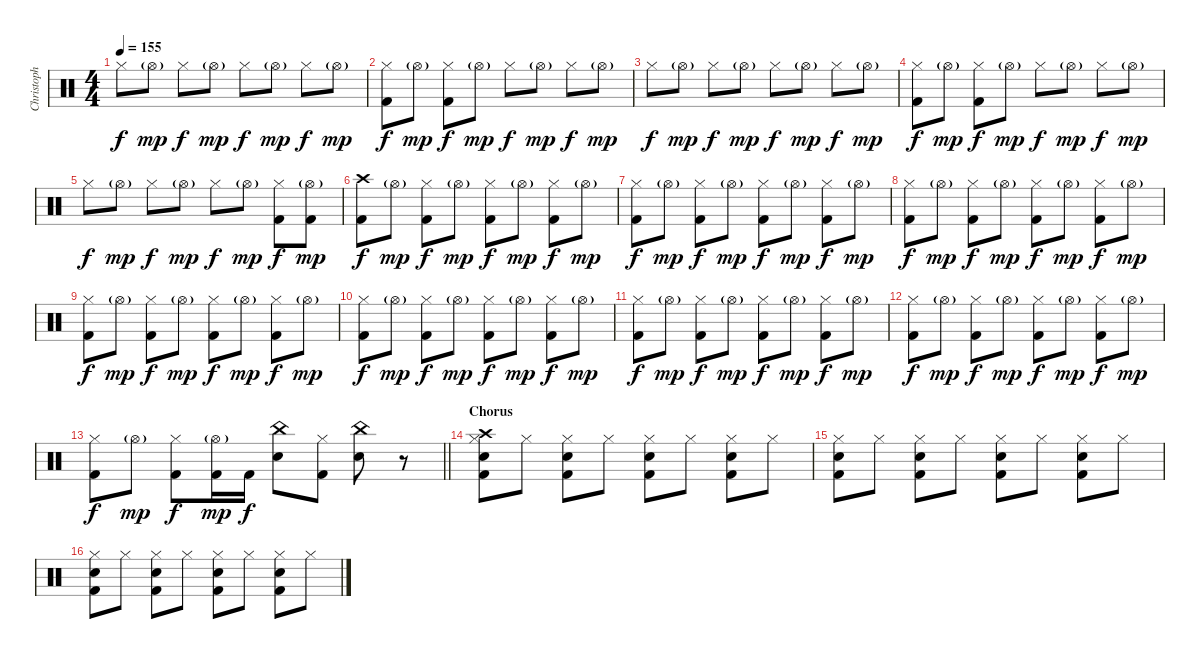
\track ("Christoph \"Doom\" Schneider" "Christoph ") {instrument percussion}
\staff {score}
\articulation defaults
\ts (4 4)
\tempo 155
\clef neutral
\ks c "Hi-Hat (closed)".8{dy f} "Hi-Hat (open)"{g}.8{dy mp} "Hi-Hat (closed)".8{dy f} "Hi-Hat (open)"{g}.8{dy mp} "Hi-Hat (closed)".8{dy f} "Hi-Hat (open)"{g}.8{dy mp} "Hi-Hat (closed)".8{dy f} "Hi-Hat (open)"{g}.8{dy mp}
|
("Hi-Hat (closed)" "Kick (hit) 2").8{dy f} "Hi-Hat (open)"{g}.8{dy mp} ("Hi-Hat (closed)" "Kick (hit) 2").8{dy f} "Hi-Hat (open)"{g}.8{dy mp} "Hi-Hat (closed)".8{dy f} "Hi-Hat (open)"{g}.8{dy mp} "Hi-Hat (closed)".8{dy f} "Hi-Hat (open)"{g}.8{dy mp} |
"Hi-Hat (closed)".8{dy f} "Hi-Hat (open)"{g}.8{dy mp} "Hi-Hat (closed)".8{dy f} "Hi-Hat (open)"{g}.8{dy mp} "Hi-Hat (closed)".8{dy f} "Hi-Hat (open)"{g}.8{dy mp} "Hi-Hat (closed)".8{dy f} "Hi-Hat (open)"{g}.8{dy mp} |
("Hi-Hat (closed)" "Kick (hit) 2").8{dy f} "Hi-Hat (open)"{g}.8{dy mp} ("Hi-Hat (closed)" "Kick (hit) 2").8{dy f} "Hi-Hat (open)"{g}.8{dy mp} "Hi-Hat (closed)".8{dy f} "Hi-Hat (open)"{g}.8{dy mp} "Hi-Hat (closed)".8{dy f} "Hi-Hat (open)"{g}.8{dy mp} |
"Hi-Hat (closed)".8{dy f} "Hi-Hat (open)"{g}.8{dy mp} "Hi-Hat (closed)".8{dy f} "Hi-Hat (open)"{g}.8{dy mp} "Hi-Hat (closed)".8{dy f} "Hi-Hat (open)"{g}.8{dy mp} ("Hi-Hat (closed)" "Kick (hit) 2").8{dy f} ("Hi-Hat (open)"{g} "Kick (hit) 2").8{dy mp} |
("Crash high (hit)" "Kick (hit) 2").8{dy f volume 8} "Hi-Hat (open)"{g}.8{dy mp} ("Hi-Hat (closed)" "Kick (hit) 2").8{dy f} "Hi-Hat (open)"{g}.8{dy mp} ("Hi-Hat (closed)" "Kick (hit) 2").8{dy f} "Hi-Hat (open)"{g}.8{dy mp} ("Hi-Hat (closed)" "Kick (hit) 2").8{dy f} "Hi-Hat (open)"{g}.8{dy mp} |
("Hi-Hat (closed)" "Kick (hit) 2").8{dy f} "Hi-Hat (open)"{g}.8{dy mp} ("Hi-Hat (closed)" "Kick (hit) 2").8{dy f} "Hi-Hat (open)"{g}.8{dy mp} ("Hi-Hat (closed)" "Kick (hit) 2").8{dy f} "Hi-Hat (open)"{g}.8{dy mp} ("Hi-Hat (closed)" "Kick (hit) 2").8{dy f} "Hi-Hat (open)"{g}.8{dy mp} |
("Hi-Hat (closed)" "Kick (hit) 2").8{dy f} "Hi-Hat (open)"{g}.8{dy mp} ("Hi-Hat (closed)" "Kick (hit) 2").8{dy f} "Hi-Hat (open)"{g}.8{dy mp} ("Hi-Hat (closed)" "Kick (hit) 2").8{dy f} "Hi-Hat (open)"{g}.8{dy mp} ("Hi-Hat (closed)" "Kick (hit) 2").8{dy f} "Hi-Hat (open)"{g}.8{dy mp} |
("Hi-Hat (closed)" "Kick (hit) 2").8{dy f} "Hi-Hat (open)"{g}.8{dy mp} ("Hi-Hat (closed)" "Kick (hit) 2").8{dy f} "Hi-Hat (open)"{g}.8{dy mp} ("Hi-Hat (closed)" "Kick (hit) 2").8{dy f} "Hi-Hat (open)"{g}.8{dy mp} ("Hi-Hat (closed)" "Kick (hit) 2").8{dy f} "Hi-Hat (open)"{g}.8{dy mp} |
("Hi-Hat (closed)" "Kick (hit) 2").8{dy f} "Hi-Hat (open)"{g}.8{dy mp} ("Hi-Hat (closed)" "Kick (hit) 2").8{dy f} "Hi-Hat (open)"{g}.8{dy mp} ("Hi-Hat (closed)" "Kick (hit) 2").8{dy f} "Hi-Hat (open)"{g}.8{dy mp} ("Hi-Hat (closed)" "Kick (hit) 2").8{dy f} "Hi-Hat (open)"{g}.8{dy mp} |
("Hi-Hat (closed)" "Kick (hit) 2").8{dy f} "Hi-Hat (open)"{g}.8{dy mp} ("Hi-Hat (closed)" "Kick (hit) 2").8{dy f} "Hi-Hat (open)"{g}.8{dy mp} ("Hi-Hat (closed)" "Kick (hit) 2").8{dy f} "Hi-Hat (open)"{g}.8{dy mp} ("Hi-Hat (closed)" "Kick (hit) 2").8{dy f} "Hi-Hat (open)"{g}.8{dy mp} |
("Hi-Hat (closed)" "Kick (hit) 2").8{dy f} "Hi-Hat (open)"{g}.8{dy mp} ("Hi-Hat (closed)" "Kick (hit) 2").8{dy f} "Hi-Hat (open)"{g}.8{dy mp} ("Hi-Hat (closed)" "Kick (hit) 2").8{dy f} "Hi-Hat (open)"{g}.8{dy mp} ("Hi-Hat (closed)" "Kick (hit) 2").8{dy f} "Hi-Hat (open)"{g}.8{dy mp} |
\barLineRight lightlight
("Hi-Hat (closed)" "Kick (hit) 2").8{dy f} "Hi-Hat (open)"{g}.8{dy mp} ("Hi-Hat (closed)" "Kick (hit) 2").8{dy f} ("Hi-Hat (open)"{g} "Kick (hit) 2").16{dy mp} "Kick (hit) 2".16{dy f} ("China (hit)" "Snare (hit) 2").8 ("Hi-Hat (closed)" "Kick (hit) 2").8 ("China (hit)" "Snare (hit) 2").8 r.8 |
\section ("" "Chorus")
("Crash high (hit)" "Hi-Hat (closed)" "Snare (hit) 2" "Kick (hit) 2").8 "Hi-Hat (closed)".8 ("Hi-Hat (closed)" "Snare (hit) 2" "Kick (hit) 2").8 "Hi-Hat (closed)".8 ("Hi-Hat (closed)" "Snare (hit) 2" "Kick (hit) 2").8 "Hi-Hat (closed)".8 ("Hi-Hat (closed)" "Snare (hit) 2" "Kick (hit) 2").8 "Hi-Hat (closed)".8 |
("Hi-Hat (closed)" "Snare (hit) 2" "Kick (hit) 2").8 "Hi-Hat (closed)".8 ("Hi-Hat (closed)" "Snare (hit) 2" "Kick (hit) 2").8 "Hi-Hat (closed)".8 ("Hi-Hat (closed)" "Snare (hit) 2" "Kick (hit) 2").8 "Hi-Hat (closed)".8 ("Hi-Hat (closed)" "Snare (hit) 2" "Kick (hit) 2").8 "Hi-Hat (closed)".8 |
("Hi-Hat (closed)" "Snare (hit) 2" "Kick (hit) 2").8 "Hi-Hat (closed)".8 ("Hi-Hat (closed)" "Snare (hit) 2" "Kick (hit) 2").8 "Hi-Hat (closed)".8 ("Hi-Hat (closed)" "Snare (hit) 2" "Kick (hit) 2").8 "Hi-Hat (closed)".8 ("Hi-Hat (closed)" "Snare (hit) 2" "Kick (hit) 2").8 "Hi-Hat (closed)".8
